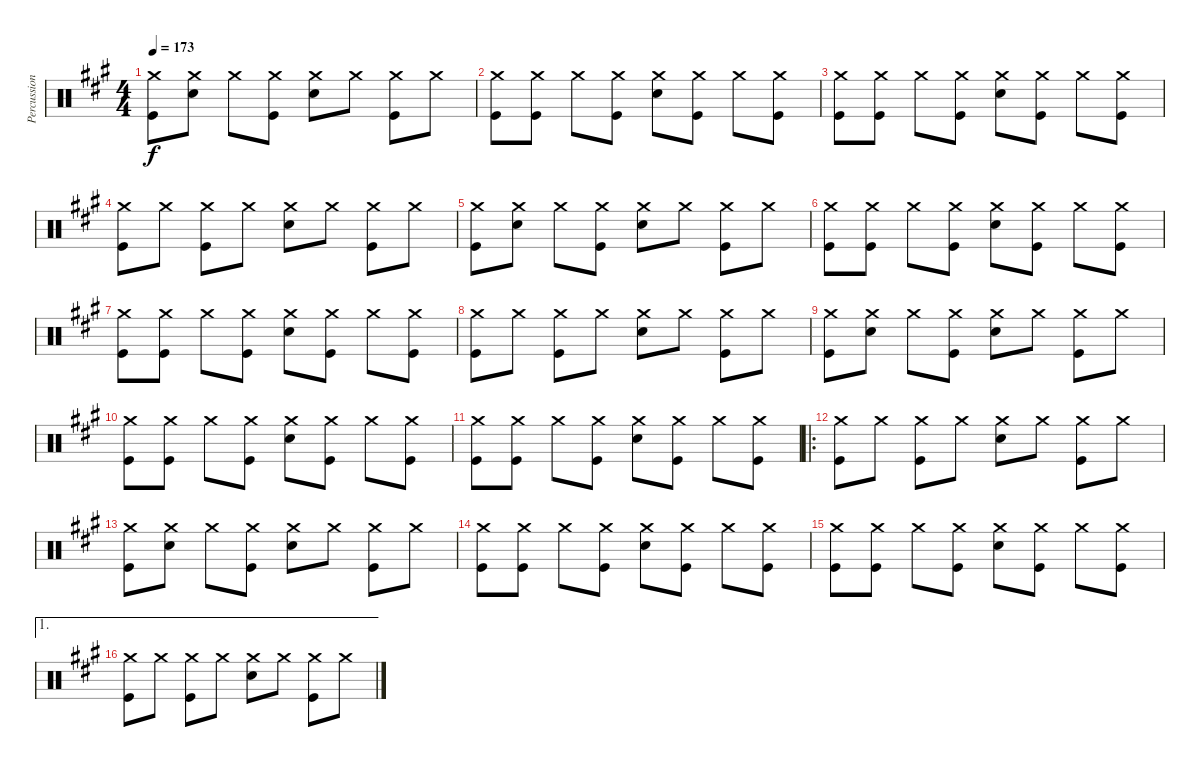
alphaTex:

\track ("Percussions" "Percussion") {instrument percussion}
\staff {score}
\articulation defaults
\ts (4 4)
\tempo 173
\clef neutral
\ks a
("Crash medium (hit)" "Kick (hit)").8{dy f} ("Crash medium (hit)" "Electric Snare (hit)").8 "Crash medium (hit)".8 ("Crash medium (hit)" "Kick (hit)").8 ("Crash medium (hit)" "Electric Snare (hit)").8 "Crash medium (hit)".8 ("Crash medium (hit)" "Kick (hit)").8 "Crash medium (hit)".8 |
("Crash medium (hit)" "Kick (hit)").8 ("Crash medium (hit)" "Kick (hit)").8 "Crash medium (hit)".8 ("Crash medium (hit)" "Kick (hit)").8 ("Crash medium (hit)" "Electric Snare (hit)").8 ("Crash medium (hit)" "Kick (hit)").8 "Crash medium (hit)".8 ("Crash medium (hit)" "Kick (hit)").8 |
("Crash medium (hit)" "Kick (hit)").8 ("Crash medium (hit)" "Kick (hit)").8 "Crash medium (hit)".8 ("Crash medium (hit)" "Kick (hit)").8 ("Crash medium (hit)" "Electric Snare (hit)").8 ("Crash medium (hit)" "Kick (hit)").8 "Crash medium (hit)".8 ("Crash medium (hit)" "Kick (hit)").8 |
("Crash medium (hit)" "Kick (hit)").8 "Crash medium (hit)".8 ("Crash medium (hit)" "Kick (hit)").8 "Crash medium (hit)".8 ("Crash medium (hit)" "Electric Snare (hit)").8 "Crash medium (hit)".8 ("Crash medium (hit)" "Kick (hit)").8 "Crash medium (hit)".8 |
("Crash medium (hit)" "Kick (hit)").8 ("Crash medium (hit)" "Electric Snare (hit)").8 "Crash medium (hit)".8 ("Crash medium (hit)" "Kick (hit)").8 ("Crash medium (hit)" "Electric Snare (hit)").8 "Crash medium (hit)".8 ("Crash medium (hit)" "Kick (hit)").8 "Crash medium (hit)".8 |
("Crash medium (hit)" "Kick (hit)").8 ("Crash medium (hit)" "Kick (hit)").8 "Crash medium (hit)".8 ("Crash medium (hit)" "Kick (hit)").8 ("Crash medium (hit)" "Electric Snare (hit)").8 ("Crash medium (hit)" "Kick (hit)").8 "Crash medium (hit)".8 ("Crash medium (hit)" "Kick (hit)").8 |
("Crash medium (hit)" "Kick (hit)").8 ("Crash medium (hit)" "Kick (hit)").8 "Crash medium (hit)".8 ("Crash medium (hit)" "Kick (hit)").8 ("Crash medium (hit)" "Electric Snare (hit)").8 ("Crash medium (hit)" "Kick (hit)").8 "Crash medium (hit)".8 ("Crash medium (hit)" "Kick (hit)").8 |
("Crash medium (hit)" "Kick (hit)").8 "Crash medium (hit)".8 ("Crash medium (hit)" "Kick (hit)").8 "Crash medium (hit)".8 ("Crash medium (hit)" "Electric Snare (hit)").8 "Crash medium (hit)".8 ("Crash medium (hit)" "Kick (hit)").8 "Crash medium (hit)".8 |
("Crash medium (hit)" "Kick (hit)").8 ("Crash medium (hit)" "Electric Snare (hit)").8 "Crash medium (hit)".8 ("Crash medium (hit)" "Kick (hit)").8 ("Crash medium (hit)" "Electric Snare (hit)").8 "Crash medium (hit)".8 ("Crash medium (hit)" "Kick (hit)").8 "Crash medium (hit)".8 |
("Crash medium (hit)" "Kick (hit)").8 ("Crash medium (hit)" "Kick (hit)").8 "Crash medium (hit)".8 ("Crash medium (hit)" "Kick (hit)").8 ("Crash medium (hit)" "Electric Snare (hit)").8 ("Crash medium (hit)" "Kick (hit)").8 "Crash medium (hit)".8 ("Crash medium (hit)" "Kick (hit)").8 |
("Crash medium (hit)" "Kick (hit)").8 ("Crash medium (hit)" "Kick (hit)").8 "Crash medium (hit)".8 ("Crash medium (hit)" "Kick (hit)").8 ("Crash medium (hit)" "Electric Snare (hit)").8 ("Crash medium (hit)" "Kick (hit)").8 "Crash medium (hit)".8 ("Crash medium (hit)" "Kick (hit)").8 |
\ro
("Crash medium (hit)" "Kick (hit)").8 "Crash medium (hit)".8 ("Crash medium (hit)" "Kick (hit)").8 "Crash medium (hit)".8 ("Crash medium (hit)" "Electric Snare (hit)").8 "Crash medium (hit)".8 ("Crash medium (hit)" "Kick (hit)").8 "Crash medium (hit)".8 |
("Crash medium (hit)" "Kick (hit)").8 ("Crash medium (hit)" "Electric Snare (hit)").8 "Crash medium (hit)".8 ("Crash medium (hit)" "Kick (hit)").8 ("Crash medium (hit)" "Electric Snare (hit)").8 "Crash medium (hit)".8 ("Crash medium (hit)" "Kick (hit)").8 "Crash medium (hit)".8 |
("Crash medium (hit)" "Kick (hit)").8 ("Crash medium (hit)" "Kick (hit)").8 "Crash medium (hit)".8 ("Crash medium (hit)" "Kick (hit)").8 ("Crash medium (hit)" "Electric Snare (hit)").8 ("Crash medium (hit)" "Kick (hit)").8 "Crash medium (hit)".8 ("Crash medium (hit)" "Kick (hit)").8 |
("Crash medium (hit)" "Kick (hit)").8 ("Crash medium (hit)" "Kick (hit)").8 "Crash medium (hit)".8 ("Crash medium (hit)" "Kick (hit)").8 ("Crash medium (hit)" "Electric Snare (hit)").8 ("Crash medium (hit)" "Kick (hit)").8 "Crash medium (hit)".8 ("Crash medium (hit)" "Kick (hit)").8 |
\ae 1
("Crash medium (hit)" "Kick (hit)").8 "Crash medium (hit)".8 ("Crash medium (hit)" "Kick (hit)").8 "Crash medium (hit)".8 ("Crash medium (hit)" "Electric Snare (hit)").8 "Crash medium (hit)".8 ("Crash medium (hit)" "Kick (hit)").8 "Crash medium (hit)".8
